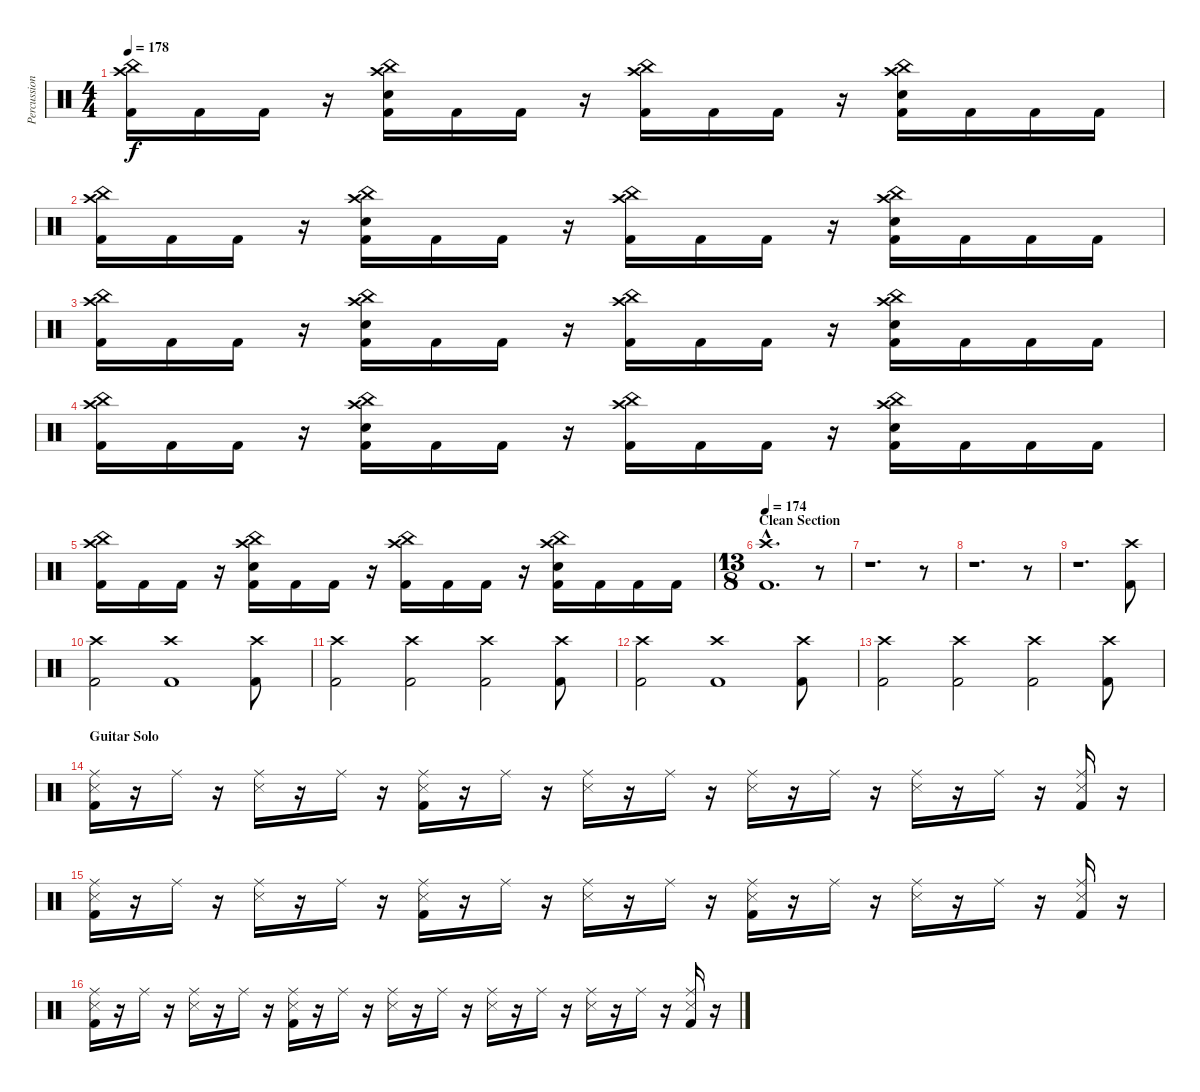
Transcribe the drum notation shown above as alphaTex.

\track ("Percussion" "Percussion") {instrument percussion}
\staff {score}
\articulation defaults
\ts (4 4)
\tempo 178
\clef neutral
\ks c
("China (hit)" "Crash high (hit)" "Kick (hit) 2").16{dy f} "Kick (hit) 2".16 "Kick (hit) 2".16 r.16 ("China (hit)" "Crash high (hit)" "Electric Snare (hit)" "Kick (hit) 2").16 "Kick (hit) 2".16 "Kick (hit) 2".16 r.16 ("China (hit)" "Crash high (hit)" "Kick (hit) 2").16 "Kick (hit) 2".16 "Kick (hit) 2".16 r.16 ("China (hit)" "Crash high (hit)" "Electric Snare (hit)" "Kick (hit) 2").16 "Kick (hit) 2".16 "Kick (hit) 2".16 "Kick (hit) 2".16 |
("China (hit)" "Crash high (hit)" "Kick (hit) 2").16 "Kick (hit) 2".16 "Kick (hit) 2".16 r.16 ("China (hit)" "Crash high (hit)" "Electric Snare (hit)" "Kick (hit) 2").16 "Kick (hit) 2".16 "Kick (hit) 2".16 r.16 ("China (hit)" "Crash high (hit)" "Kick (hit) 2").16 "Kick (hit) 2".16 "Kick (hit) 2".16 r.16 ("China (hit)" "Crash high (hit)" "Electric Snare (hit)" "Kick (hit) 2").16 "Kick (hit) 2".16 "Kick (hit) 2".16 "Kick (hit) 2".16 |
("China (hit)" "Crash high (hit)" "Kick (hit) 2").16 "Kick (hit) 2".16 "Kick (hit) 2".16 r.16 ("China (hit)" "Crash high (hit)" "Electric Snare (hit)" "Kick (hit) 2").16 "Kick (hit) 2".16 "Kick (hit) 2".16 r.16 ("China (hit)" "Crash high (hit)" "Kick (hit) 2").16 "Kick (hit) 2".16 "Kick (hit) 2".16 r.16 ("China (hit)" "Crash high (hit)" "Electric Snare (hit)" "Kick (hit) 2").16 "Kick (hit) 2".16 "Kick (hit) 2".16 "Kick (hit) 2".16 |
("China (hit)" "Crash high (hit)" "Kick (hit) 2").16 "Kick (hit) 2".16 "Kick (hit) 2".16 r.16 ("China (hit)" "Crash high (hit)" "Electric Snare (hit)" "Kick (hit) 2").16 "Kick (hit) 2".16 "Kick (hit) 2".16 r.16 ("China (hit)" "Crash high (hit)" "Kick (hit) 2").16 "Kick (hit) 2".16 "Kick (hit) 2".16 r.16 ("China (hit)" "Crash high (hit)" "Electric Snare (hit)" "Kick (hit) 2").16 "Kick (hit) 2".16 "Kick (hit) 2".16 "Kick (hit) 2".16 |
("China (hit)" "Crash high (hit)" "Kick (hit) 2").16 "Kick (hit) 2".16 "Kick (hit) 2".16 r.16 ("China (hit)" "Crash high (hit)" "Electric Snare (hit)" "Kick (hit) 2").16 "Kick (hit) 2".16 "Kick (hit) 2".16 r.16 ("China (hit)" "Crash high (hit)" "Kick (hit) 2").16 "Kick (hit) 2".16 "Kick (hit) 2".16 r.16 ("China (hit)" "Crash high (hit)" "Electric Snare (hit)" "Kick (hit) 2").16 "Kick (hit) 2".16 "Kick (hit) 2".16 "Kick (hit) 2".16 |
\ts (13 8)
\section ("" "Clean Section")
\tempo 174
("Crash high (hit)"{hac} "Kick (hit) 2"{hac}).1{d} r.8 |
r.1{d} r.8 |
r.1{d} r.8 |
r.1{d} ("Crash high (hit)" "Kick (hit) 2").8 |
("Crash high (hit)" "Kick (hit) 2").2 ("Crash high (hit)" "Kick (hit) 2").1 ("Crash high (hit)" "Kick (hit) 2").8 |
("Crash high (hit)" "Kick (hit) 2").2 ("Crash high (hit)" "Kick (hit) 2").2 ("Crash high (hit)" "Kick (hit) 2").2 ("Crash high (hit)" "Kick (hit) 2").8 |
("Crash high (hit)" "Kick (hit) 2").2 ("Crash high (hit)" "Kick (hit) 2").1 ("Crash high (hit)" "Kick (hit) 2").8 |
("Crash high (hit)" "Kick (hit) 2").2 ("Crash high (hit)" "Kick (hit) 2").2 ("Crash high (hit)" "Kick (hit) 2").2 ("Crash high (hit)" "Kick (hit) 2").8 |
\section ("" "Guitar Solo")
("Ride (middle)" "Snare (side stick) 3" "Kick (hit) 2").16 r.16 "Ride (middle)".16 r.16 ("Ride (middle)" "Snare (side stick) 3").16 r.16 "Ride (middle)".16 r.16 ("Ride (middle)" "Snare (side stick) 3" "Kick (hit) 2").16 r.16 "Ride (middle)".16 r.16 ("Ride (middle)" "Snare (side stick) 3").16 r.16 "Ride (middle)".16 r.16 ("Ride (middle)" "Snare (side stick) 3").16 r.16 "Ride (middle)".16 r.16 ("Ride (middle)" "Snare (side stick) 3").16 r.16 "Ride (middle)".16 r.16 ("Ride (middle)" "Snare (side stick) 3" "Kick (hit) 2").16 r.16 |
("Ride (middle)" "Snare (side stick) 3" "Kick (hit) 2").16 r.16 "Ride (middle)".16 r.16 ("Ride (middle)" "Snare (side stick) 3").16 r.16 "Ride (middle)".16 r.16 ("Ride (middle)" "Snare (side stick) 3" "Kick (hit) 2").16 r.16 "Ride (middle)".16 r.16 ("Ride (middle)" "Snare (side stick) 3").16 r.16 "Ride (middle)".16 r.16 ("Ride (middle)" "Snare (side stick) 3" "Kick (hit) 2").16 r.16 "Ride (middle)".16 r.16 ("Ride (middle)" "Snare (side stick) 3").16 r.16 "Ride (middle)".16 r.16 ("Ride (middle)" "Snare (side stick) 3" "Kick (hit) 2").16 r.16 |
("Ride (middle)" "Snare (side stick) 3" "Kick (hit) 2").16 r.16 "Ride (middle)".16 r.16 ("Ride (middle)" "Snare (side stick) 3").16 r.16 "Ride (middle)".16 r.16 ("Ride (middle)" "Snare (side stick) 3" "Kick (hit) 2").16 r.16 "Ride (middle)".16 r.16 ("Ride (middle)" "Snare (side stick) 3").16 r.16 "Ride (middle)".16 r.16 ("Ride (middle)" "Snare (side stick) 3").16 r.16 "Ride (middle)".16 r.16 ("Ride (middle)" "Snare (side stick) 3").16 r.16 "Ride (middle)".16 r.16 ("Ride (middle)" "Snare (side stick) 3" "Kick (hit) 2").16 r.16
